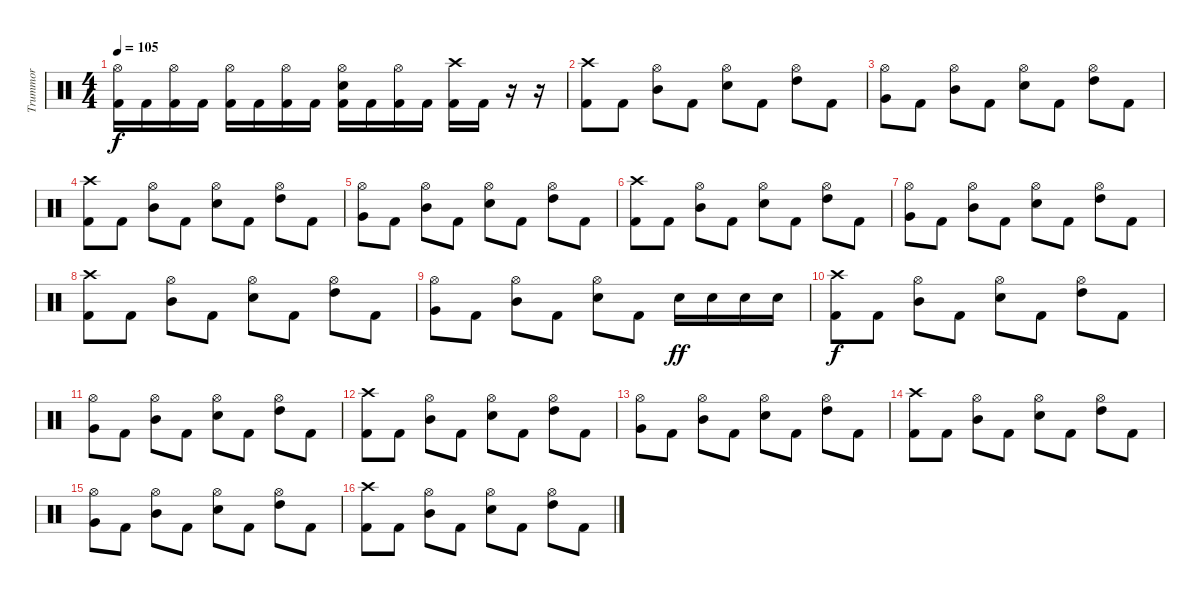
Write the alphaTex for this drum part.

\track ("Trummor" "Trummor") {instrument percussion}
\staff {score}
\articulation defaults
\ts (4 4)
\tempo 105
\clef neutral
\ks c
("Hi-Hat (open)" "Kick (hit) 2").16{dy f} "Kick (hit) 2".16 ("Hi-Hat (open)" "Kick (hit) 2").16 "Kick (hit) 2".16 ("Hi-Hat (open)" "Kick (hit) 2").16 "Kick (hit) 2".16 ("Hi-Hat (open)" "Kick (hit) 2").16 "Kick (hit) 2".16 ("Hi-Hat (open)" "Snare (hit) 2" "Kick (hit) 2").16 "Kick (hit) 2".16 ("Hi-Hat (open)" "Kick (hit) 2").16 "Kick (hit) 2".16 ("Crash high (hit)" "Kick (hit) 2").16 "Kick (hit) 2".16 r.16 r.16 |
("Crash high (hit)" "Kick (hit) 2").8 "Kick (hit) 2".8 ("Hi-Hat (open)" "Mid Tom (hit)").8 "Kick (hit) 2".8 ("Hi-Hat (open)" "Snare (hit) 2").8 "Kick (hit) 2".8 ("Hi-Hat (open)" "High Tom (hit)").8 "Kick (hit) 2".8 |
("Hi-Hat (open)" "Very Low Tom (hit)").8 "Kick (hit) 2".8 ("Hi-Hat (open)" "Mid Tom (hit)").8 "Kick (hit) 2".8 ("Hi-Hat (open)" "Snare (hit) 2").8 "Kick (hit) 2".8 ("Hi-Hat (open)" "High Tom (hit)").8 "Kick (hit) 2".8 |
("Crash high (hit)" "Kick (hit) 2").8 "Kick (hit) 2".8 ("Hi-Hat (open)" "Mid Tom (hit)").8 "Kick (hit) 2".8 ("Hi-Hat (open)" "Snare (hit) 2").8 "Kick (hit) 2".8 ("Hi-Hat (open)" "High Tom (hit)").8 "Kick (hit) 2".8 |
("Hi-Hat (open)" "Very Low Tom (hit)").8 "Kick (hit) 2".8 ("Hi-Hat (open)" "Mid Tom (hit)").8 "Kick (hit) 2".8 ("Hi-Hat (open)" "Snare (hit) 2").8 "Kick (hit) 2".8 ("Hi-Hat (open)" "High Tom (hit)").8 "Kick (hit) 2".8 |
("Crash high (hit)" "Kick (hit) 2").8 "Kick (hit) 2".8 ("Hi-Hat (open)" "Mid Tom (hit)").8 "Kick (hit) 2".8 ("Hi-Hat (open)" "Snare (hit) 2").8 "Kick (hit) 2".8 ("Hi-Hat (open)" "High Tom (hit)").8 "Kick (hit) 2".8 |
("Hi-Hat (open)" "Very Low Tom (hit)").8 "Kick (hit) 2".8 ("Hi-Hat (open)" "Mid Tom (hit)").8 "Kick (hit) 2".8 ("Hi-Hat (open)" "Snare (hit) 2").8 "Kick (hit) 2".8 ("Hi-Hat (open)" "High Tom (hit)").8 "Kick (hit) 2".8 |
("Crash high (hit)" "Kick (hit) 2").8 "Kick (hit) 2".8 ("Hi-Hat (open)" "Mid Tom (hit)").8 "Kick (hit) 2".8 ("Hi-Hat (open)" "Snare (hit) 2").8 "Kick (hit) 2".8 ("Hi-Hat (open)" "High Tom (hit)").8 "Kick (hit) 2".8 |
("Hi-Hat (open)" "Very Low Tom (hit)").8 "Kick (hit) 2".8 ("Hi-Hat (open)" "Mid Tom (hit)").8 "Kick (hit) 2".8 ("Hi-Hat (open)" "Snare (hit) 2").8 "Kick (hit) 2".8 "Snare (hit) 2".16{dy ff} "Snare (hit) 2".16 "Snare (hit) 2".16 "Snare (hit) 2".16 |
("Crash high (hit)" "Kick (hit) 2").8{dy f} "Kick (hit) 2".8 ("Hi-Hat (open)" "Mid Tom (hit)").8 "Kick (hit) 2".8 ("Hi-Hat (open)" "Snare (hit) 2").8 "Kick (hit) 2".8 ("Hi-Hat (open)" "High Tom (hit)").8 "Kick (hit) 2".8 |
("Hi-Hat (open)" "Very Low Tom (hit)").8 "Kick (hit) 2".8 ("Hi-Hat (open)" "Mid Tom (hit)").8 "Kick (hit) 2".8 ("Hi-Hat (open)" "Snare (hit) 2").8 "Kick (hit) 2".8 ("Hi-Hat (open)" "High Tom (hit)").8 "Kick (hit) 2".8 |
("Crash high (hit)" "Kick (hit) 2").8 "Kick (hit) 2".8 ("Hi-Hat (open)" "Mid Tom (hit)").8 "Kick (hit) 2".8 ("Hi-Hat (open)" "Snare (hit) 2").8 "Kick (hit) 2".8 ("Hi-Hat (open)" "High Tom (hit)").8 "Kick (hit) 2".8 |
("Hi-Hat (open)" "Very Low Tom (hit)").8 "Kick (hit) 2".8 ("Hi-Hat (open)" "Mid Tom (hit)").8 "Kick (hit) 2".8 ("Hi-Hat (open)" "Snare (hit) 2").8 "Kick (hit) 2".8 ("Hi-Hat (open)" "High Tom (hit)").8 "Kick (hit) 2".8 |
("Crash high (hit)" "Kick (hit) 2").8 "Kick (hit) 2".8 ("Hi-Hat (open)" "Mid Tom (hit)").8 "Kick (hit) 2".8 ("Hi-Hat (open)" "Snare (hit) 2").8 "Kick (hit) 2".8 ("Hi-Hat (open)" "High Tom (hit)").8 "Kick (hit) 2".8 |
("Hi-Hat (open)" "Very Low Tom (hit)").8 "Kick (hit) 2".8 ("Hi-Hat (open)" "Mid Tom (hit)").8 "Kick (hit) 2".8 ("Hi-Hat (open)" "Snare (hit) 2").8 "Kick (hit) 2".8 ("Hi-Hat (open)" "High Tom (hit)").8 "Kick (hit) 2".8 |
("Crash high (hit)" "Kick (hit) 2").8 "Kick (hit) 2".8 ("Hi-Hat (open)" "Mid Tom (hit)").8 "Kick (hit) 2".8 ("Hi-Hat (open)" "Snare (hit) 2").8 "Kick (hit) 2".8 ("Hi-Hat (open)" "High Tom (hit)").8 "Kick (hit) 2".8
